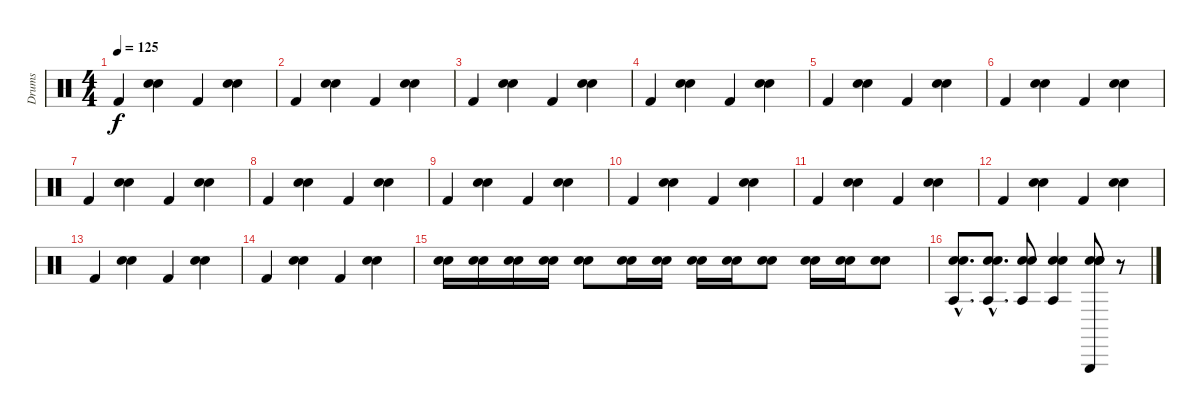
\track ("Drums" "Drums") {instrument percussion}
\staff {score}
\articulation defaults
\ts (4 4)
\tempo 125
\clef neutral
\ks c "Kick (hit) 2".4{dy f}
("Electric Snare (hit)" "Hand Clap (hit)").4 "Kick (hit) 2".4 ("Electric Snare (hit)" "Hand Clap (hit)").4 |
"Kick (hit) 2".4 ("Electric Snare (hit)" "Hand Clap (hit)").4 "Kick (hit) 2".4 ("Electric Snare (hit)" "Hand Clap (hit)").4 |
"Kick (hit) 2".4 ("Electric Snare (hit)" "Hand Clap (hit)").4 "Kick (hit) 2".4 ("Electric Snare (hit)" "Hand Clap (hit)").4 |
"Kick (hit) 2".4 ("Electric Snare (hit)" "Hand Clap (hit)").4 "Kick (hit) 2".4 ("Electric Snare (hit)" "Hand Clap (hit)").4 |
"Kick (hit) 2".4 ("Electric Snare (hit)" "Hand Clap (hit)").4 "Kick (hit) 2".4 ("Electric Snare (hit)" "Hand Clap (hit)").4 |
"Kick (hit) 2".4 ("Electric Snare (hit)" "Hand Clap (hit)").4 "Kick (hit) 2".4 ("Electric Snare (hit)" "Hand Clap (hit)").4 |
"Kick (hit) 2".4 ("Electric Snare (hit)" "Hand Clap (hit)").4 "Kick (hit) 2".4 ("Electric Snare (hit)" "Hand Clap (hit)").4 |
"Kick (hit) 2".4 ("Electric Snare (hit)" "Hand Clap (hit)").4 "Kick (hit) 2".4 ("Electric Snare (hit)" "Hand Clap (hit)").4 |
"Kick (hit) 2".4 ("Electric Snare (hit)" "Hand Clap (hit)").4 "Kick (hit) 2".4 ("Electric Snare (hit)" "Hand Clap (hit)").4 |
"Kick (hit) 2".4 ("Electric Snare (hit)" "Hand Clap (hit)").4 "Kick (hit) 2".4 ("Electric Snare (hit)" "Hand Clap (hit)").4 |
"Kick (hit) 2".4 ("Electric Snare (hit)" "Hand Clap (hit)").4 "Kick (hit) 2".4 ("Electric Snare (hit)" "Hand Clap (hit)").4 |
"Kick (hit) 2".4 ("Electric Snare (hit)" "Hand Clap (hit)").4 "Kick (hit) 2".4 ("Electric Snare (hit)" "Hand Clap (hit)").4 |
"Kick (hit) 2".4 ("Electric Snare (hit)" "Hand Clap (hit)").4 "Kick (hit) 2".4 ("Electric Snare (hit)" "Hand Clap (hit)").4 |
"Kick (hit) 2".4 ("Electric Snare (hit)" "Hand Clap (hit)").4 "Kick (hit) 2".4 ("Electric Snare (hit)" "Hand Clap (hit)").4 |
("Electric Snare (hit)" "Electric Snare (hit)").16 ("Electric Snare (hit)" "Electric Snare (hit)").16 ("Electric Snare (hit)" "Electric Snare (hit)").16 ("Electric Snare (hit)" "Electric Snare (hit)").16 ("Electric Snare (hit)" "Electric Snare (hit)").8 ("Electric Snare (hit)" "Electric Snare (hit)").16 ("Electric Snare (hit)" "Electric Snare (hit)").16 ("Electric Snare (hit)" "Electric Snare (hit)").16 ("Electric Snare (hit)" "Electric Snare (hit)").16 ("Electric Snare (hit)" "Electric Snare (hit)").8 ("Electric Snare (hit)" "Electric Snare (hit)").16 ("Electric Snare (hit)" "Electric Snare (hit)").16 ("Electric Snare (hit)" "Electric Snare (hit)").8 |
("Agogo tow (hit)"{hac} "Electric Snare (hit)"{hac} "Electric Snare (hit)"{hac}).8{d} ("Agogo tow (hit)"{hac} "Electric Snare (hit)"{hac} "Electric Snare (hit)"{hac}).8{d} ("Agogo tow (hit)" "Electric Snare (hit)" "Electric Snare (hit)").8 ("Agogo tow (hit)" "Electric Snare (hit)" "Electric Snare (hit)").4 ("Triangle (hit)" "Electric Snare (hit)" "Electric Snare (hit)" "Electric Snare (hit)").8 r.8
